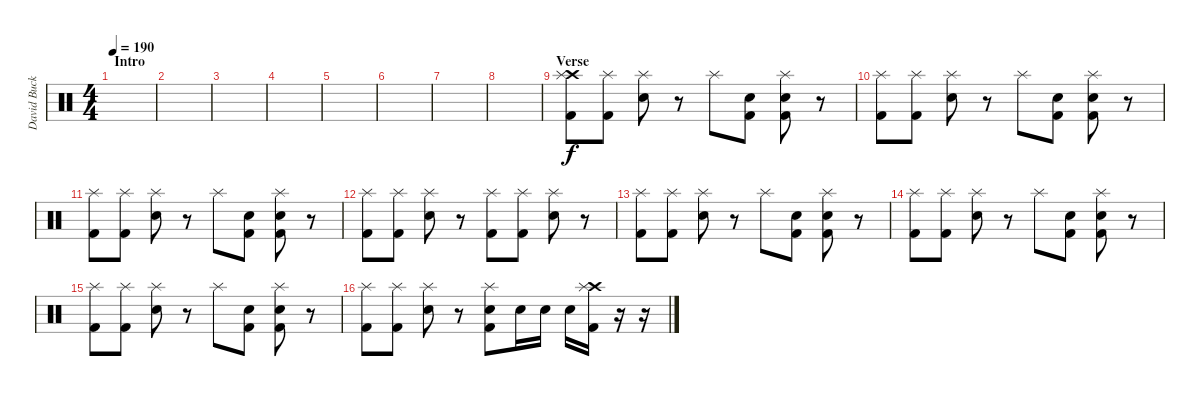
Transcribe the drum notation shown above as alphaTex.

\track ("David Buckner" "David Buck") {instrument percussion}
\staff {score}
\articulation defaults
\ts (4 4)
\section ("" "Intro")
\tempo 190
\clef neutral
\ks c
|
|
|
|
|
|
|
|
\section ("" "Verse")
("Crash high (hit)" "Splash (hit)" "Kick (hit) 2").8 ("Splash (hit)" "Kick (hit) 2").8 ("Splash (hit)" "Snare (hit) 2").8 r.8 "Splash (hit)".8 ("Snare (hit) 2" "Kick (hit) 2").8 ("Splash (hit)" "Snare (hit) 2" "Kick (hit) 2").8 r.8 |
("Splash (hit)" "Kick (hit) 2").8 ("Splash (hit)" "Kick (hit) 2").8 ("Splash (hit)" "Snare (hit) 2").8 r.8 "Splash (hit)".8 ("Snare (hit) 2" "Kick (hit) 2").8 ("Splash (hit)" "Snare (hit) 2" "Kick (hit) 2").8 r.8 |
("Splash (hit)" "Kick (hit) 2").8 ("Splash (hit)" "Kick (hit) 2").8 ("Splash (hit)" "Snare (hit) 2").8 r.8 "Splash (hit)".8 ("Snare (hit) 2" "Kick (hit) 2").8 ("Splash (hit)" "Snare (hit) 2" "Kick (hit) 2").8 r.8 |
("Splash (hit)" "Kick (hit) 2").8 ("Splash (hit)" "Kick (hit) 2").8 ("Splash (hit)" "Snare (hit) 2").8 r.8 ("Splash (hit)" "Kick (hit) 2").8 ("Splash (hit)" "Kick (hit) 2").8 ("Splash (hit)" "Snare (hit) 2").8 r.8 |
("Splash (hit)" "Kick (hit) 2").8 ("Splash (hit)" "Kick (hit) 2").8 ("Splash (hit)" "Snare (hit) 2").8 r.8 "Splash (hit)".8 ("Snare (hit) 2" "Kick (hit) 2").8 ("Splash (hit)" "Snare (hit) 2" "Kick (hit) 2").8 r.8 |
("Splash (hit)" "Kick (hit) 2").8 ("Splash (hit)" "Kick (hit) 2").8 ("Splash (hit)" "Snare (hit) 2").8 r.8 "Splash (hit)".8 ("Snare (hit) 2" "Kick (hit) 2").8 ("Splash (hit)" "Snare (hit) 2" "Kick (hit) 2").8 r.8 |
("Splash (hit)" "Kick (hit) 2").8 ("Splash (hit)" "Kick (hit) 2").8 ("Splash (hit)" "Snare (hit) 2").8 r.8 "Splash (hit)".8 ("Snare (hit) 2" "Kick (hit) 2").8 ("Splash (hit)" "Snare (hit) 2" "Kick (hit) 2").8 r.8 |
("Splash (hit)" "Kick (hit) 2").8 ("Splash (hit)" "Kick (hit) 2").8 ("Splash (hit)" "Snare (hit) 2").8 r.8 ("Splash (hit)" "Snare (hit) 2" "Kick (hit) 2").8 "Snare (hit) 2".16 "Snare (hit) 2".16 "Snare (hit) 2".16 ("Crash high (hit)" "Splash (hit)" "Kick (hit) 2").16 r.16 r.16
